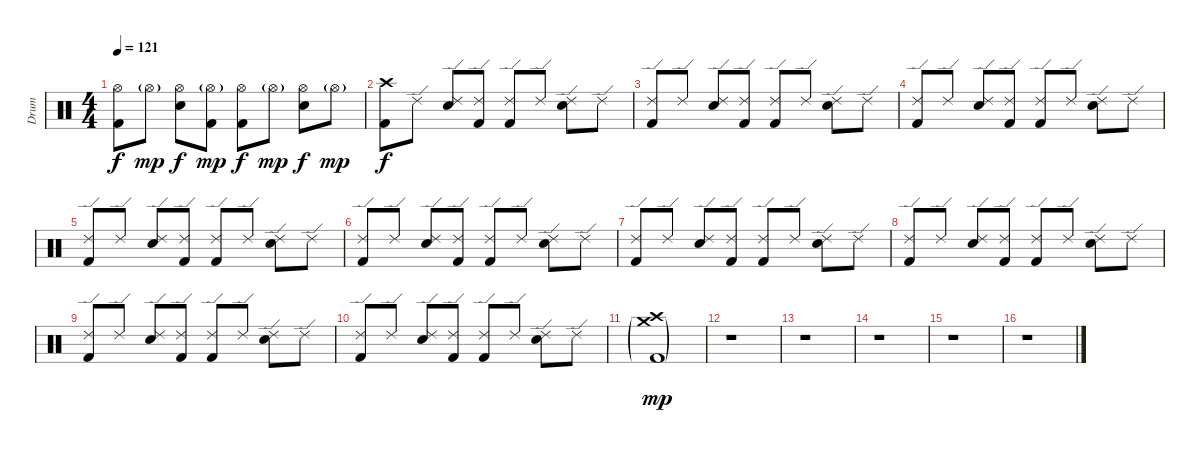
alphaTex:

\track ("Drum" "Drum") {instrument percussion}
\staff {score}
\articulation defaults
\ts (4 4)
\tempo 121
\clef neutral
\ks c
("Hi-Hat (open)" "Kick (hit) 2").8{dy f} "Hi-Hat (open)"{g}.8{dy mp} ("Hi-Hat (open)" "Snare (hit) 2").8{dy f} ("Hi-Hat (open)"{g} "Kick (hit) 2").8{dy mp} ("Hi-Hat (open)" "Kick (hit) 2").8{dy f} "Hi-Hat (open)"{g}.8{dy mp} ("Hi-Hat (open)" "Snare (hit) 2").8{dy f} "Hi-Hat (open)"{g}.8{dy mp} |
("Crash high (hit)" "Kick (hit) 2").8{dy f} "Ride (edge) 2".8 ("Ride (edge) 2" "Snare (hit) 2").8 ("Ride (edge) 2" "Kick (hit) 2").8 ("Ride (edge) 2" "Kick (hit) 2").8 "Ride (edge) 2".8 ("Ride (edge) 2" "Snare (hit) 2").8 "Ride (edge) 2".8 |
("Ride (edge) 2" "Kick (hit) 2").8 "Ride (edge) 2".8 ("Ride (edge) 2" "Snare (hit) 2").8 ("Ride (edge) 2" "Kick (hit) 2").8 ("Ride (edge) 2" "Kick (hit) 2").8 "Ride (edge) 2".8 ("Ride (edge) 2" "Snare (hit) 2").8 "Ride (edge) 2".8 |
("Ride (edge) 2" "Kick (hit) 2").8 "Ride (edge) 2".8 ("Ride (edge) 2" "Snare (hit) 2").8 ("Ride (edge) 2" "Kick (hit) 2").8 ("Ride (edge) 2" "Kick (hit) 2").8 "Ride (edge) 2".8 ("Ride (edge) 2" "Snare (hit) 2").8 "Ride (edge) 2".8 |
("Ride (edge) 2" "Kick (hit) 2").8 "Ride (edge) 2".8 ("Ride (edge) 2" "Snare (hit) 2").8 ("Ride (edge) 2" "Kick (hit) 2").8 ("Ride (edge) 2" "Kick (hit) 2").8 "Ride (edge) 2".8 ("Ride (edge) 2" "Snare (hit) 2").8 "Ride (edge) 2".8 |
("Ride (edge) 2" "Kick (hit) 2").8 "Ride (edge) 2".8 ("Ride (edge) 2" "Snare (hit) 2").8 ("Ride (edge) 2" "Kick (hit) 2").8 ("Ride (edge) 2" "Kick (hit) 2").8 "Ride (edge) 2".8 ("Ride (edge) 2" "Snare (hit) 2").8 "Ride (edge) 2".8 |
("Ride (edge) 2" "Kick (hit) 2").8 "Ride (edge) 2".8 ("Ride (edge) 2" "Snare (hit) 2").8 ("Ride (edge) 2" "Kick (hit) 2").8 ("Ride (edge) 2" "Kick (hit) 2").8 "Ride (edge) 2".8 ("Ride (edge) 2" "Snare (hit) 2").8 "Ride (edge) 2".8 |
("Ride (edge) 2" "Kick (hit) 2").8 "Ride (edge) 2".8 ("Ride (edge) 2" "Snare (hit) 2").8 ("Ride (edge) 2" "Kick (hit) 2").8 ("Ride (edge) 2" "Kick (hit) 2").8 "Ride (edge) 2".8 ("Ride (edge) 2" "Snare (hit) 2").8 "Ride (edge) 2".8 |
("Ride (edge) 2" "Kick (hit) 2").8 "Ride (edge) 2".8 ("Ride (edge) 2" "Snare (hit) 2").8 ("Ride (edge) 2" "Kick (hit) 2").8 ("Ride (edge) 2" "Kick (hit) 2").8 "Ride (edge) 2".8 ("Ride (edge) 2" "Snare (hit) 2").8 "Ride (edge) 2".8 |
("Ride (edge) 2" "Kick (hit) 2").8 "Ride (edge) 2".8 ("Ride (edge) 2" "Snare (hit) 2").8 ("Ride (edge) 2" "Kick (hit) 2").8 ("Ride (edge) 2" "Kick (hit) 2").8 "Ride (edge) 2".8 ("Ride (edge) 2" "Snare (hit) 2").8 "Ride (edge) 2".8 |
("Crash high (hit)" "Crash medium (hit)"{g} "Kick (hit) 2"{g}).1{dy mp} |
r.1 |
r.1 |
r.1 |
r.1 |
r.1
